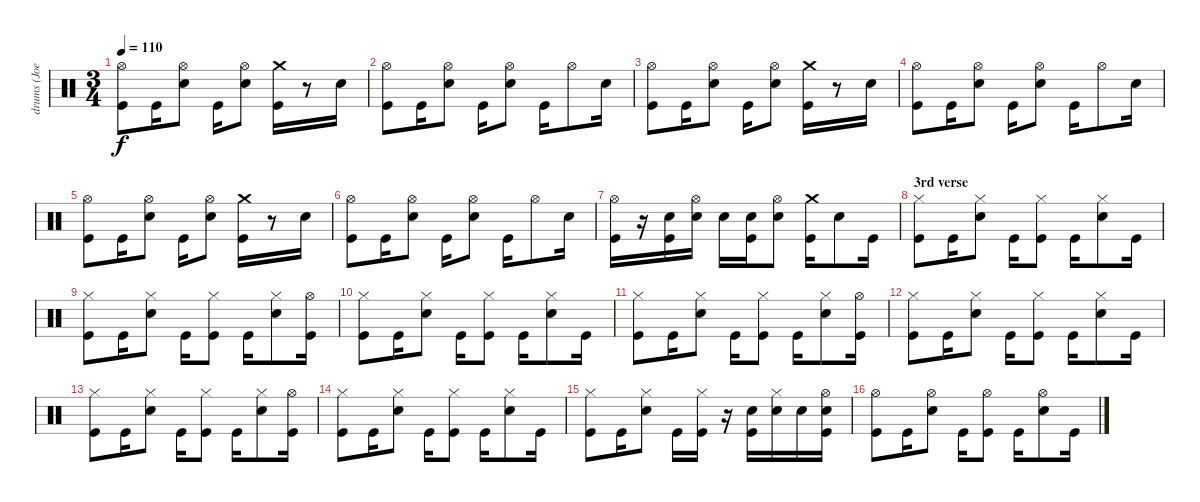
\track ("drums (Joey Castillo)" "drums (Joe") {instrument percussion}
\staff {score}
\articulation defaults
\ts (3 4)
\tempo 110
\clef neutral
\ks c
("Kick (hit)" "Hi-Hat (open)").8{dy f} "Kick (hit)".16 ("Electric Snare (hit)" "Hi-Hat (open)").8 "Kick (hit)".16 ("Electric Snare (hit)" "Hi-Hat (open)").8 ("Kick (hit)" "Crash medium (hit)").16 r.8 "Electric Snare (hit)".16 |
("Kick (hit)" "Hi-Hat (open)").8 "Kick (hit)".16 ("Electric Snare (hit)" "Hi-Hat (open)").8 "Kick (hit)".16 ("Electric Snare (hit)" "Hi-Hat (open)").8 "Kick (hit)".16 "Hi-Hat (open)".8 "Electric Snare (hit)".16 |
("Kick (hit)" "Hi-Hat (open)").8 "Kick (hit)".16 ("Electric Snare (hit)" "Hi-Hat (open)").8 "Kick (hit)".16 ("Electric Snare (hit)" "Hi-Hat (open)").8 ("Kick (hit)" "Crash medium (hit)").16 r.8 "Electric Snare (hit)".16 |
("Kick (hit)" "Hi-Hat (open)").8 "Kick (hit)".16 ("Electric Snare (hit)" "Hi-Hat (open)").8 "Kick (hit)".16 ("Electric Snare (hit)" "Hi-Hat (open)").8 "Kick (hit)".16 "Hi-Hat (open)".8 "Electric Snare (hit)".16 |
("Kick (hit)" "Hi-Hat (open)").8 "Kick (hit)".16 ("Electric Snare (hit)" "Hi-Hat (open)").8 "Kick (hit)".16 ("Electric Snare (hit)" "Hi-Hat (open)").8 ("Kick (hit)" "Crash medium (hit)").16 r.8 "Electric Snare (hit)".16 |
("Kick (hit)" "Hi-Hat (open)").8 "Kick (hit)".16 ("Electric Snare (hit)" "Hi-Hat (open)").8 "Kick (hit)".16 ("Electric Snare (hit)" "Hi-Hat (open)").8 "Kick (hit)".16 "Hi-Hat (open)".8 "Electric Snare (hit)".16 |
("Kick (hit)" "Hi-Hat (open)").16 r.16 ("Kick (hit)" "Electric Snare (hit)").16 ("Electric Snare (hit)" "Hi-Hat (open)").16 "Electric Snare (hit)".16 ("Kick (hit)" "Electric Snare (hit)").16 ("Electric Snare (hit)" "Hi-Hat (open)").8 ("Kick (hit)" "Crash medium (hit)").16 "Electric Snare (hit)".8 "Kick (hit)".16 |
\section ("" "3rd verse")
("Kick (hit)" "Hi-Hat (closed)").8 "Kick (hit)".16 ("Electric Snare (hit)" "Hi-Hat (closed)").8 "Kick (hit)".16 ("Kick (hit)" "Hi-Hat (closed)").8 "Kick (hit)".16 ("Electric Snare (hit)" "Hi-Hat (closed)").8 "Kick (hit)".16 |
("Kick (hit)" "Hi-Hat (closed)").8 "Kick (hit)".16 ("Electric Snare (hit)" "Hi-Hat (closed)").8 "Kick (hit)".16 ("Kick (hit)" "Hi-Hat (closed)").8 "Kick (hit)".16 ("Electric Snare (hit)" "Hi-Hat (closed)").8 ("Kick (hit)" "Hi-Hat (open)").16 |
("Kick (hit)" "Hi-Hat (closed)").8 "Kick (hit)".16 ("Electric Snare (hit)" "Hi-Hat (closed)").8 "Kick (hit)".16 ("Kick (hit)" "Hi-Hat (closed)").8 "Kick (hit)".16 ("Electric Snare (hit)" "Hi-Hat (closed)").8 "Kick (hit)".16 |
("Kick (hit)" "Hi-Hat (closed)").8 "Kick (hit)".16 ("Electric Snare (hit)" "Hi-Hat (closed)").8 "Kick (hit)".16 ("Kick (hit)" "Hi-Hat (closed)").8 "Kick (hit)".16 ("Electric Snare (hit)" "Hi-Hat (closed)").8 ("Kick (hit)" "Hi-Hat (open)").16 |
("Kick (hit)" "Hi-Hat (closed)").8 "Kick (hit)".16 ("Electric Snare (hit)" "Hi-Hat (closed)").8 "Kick (hit)".16 ("Kick (hit)" "Hi-Hat (closed)").8 "Kick (hit)".16 ("Electric Snare (hit)" "Hi-Hat (closed)").8 "Kick (hit)".16 |
("Kick (hit)" "Hi-Hat (closed)").8 "Kick (hit)".16 ("Electric Snare (hit)" "Hi-Hat (closed)").8 "Kick (hit)".16 ("Kick (hit)" "Hi-Hat (closed)").8 "Kick (hit)".16 ("Electric Snare (hit)" "Hi-Hat (closed)").8 ("Kick (hit)" "Hi-Hat (open)").16 |
("Kick (hit)" "Hi-Hat (closed)").8 "Kick (hit)".16 ("Electric Snare (hit)" "Hi-Hat (closed)").8 "Kick (hit)".16 ("Kick (hit)" "Hi-Hat (closed)").8 "Kick (hit)".16 ("Electric Snare (hit)" "Hi-Hat (closed)").8 "Kick (hit)".16 |
("Kick (hit)" "Hi-Hat (closed)").8 "Kick (hit)".16 ("Electric Snare (hit)" "Hi-Hat (closed)").8 "Kick (hit)".16 ("Kick (hit)" "Hi-Hat (closed)").16 r.16 ("Kick (hit)" "Electric Snare (hit)").16 ("Electric Snare (hit)" "Hi-Hat (closed)").16 "Electric Snare (hit)".16 ("Kick (hit)" "Electric Snare (hit)" "Hi-Hat (open)").16 |
("Kick (hit)" "Hi-Hat (open)").8 "Kick (hit)".16 ("Electric Snare (hit)" "Hi-Hat (open)").8 "Kick (hit)".16 ("Kick (hit)" "Hi-Hat (open)").8 "Kick (hit)".16 ("Electric Snare (hit)" "Hi-Hat (open)").8 "Kick (hit)".16
